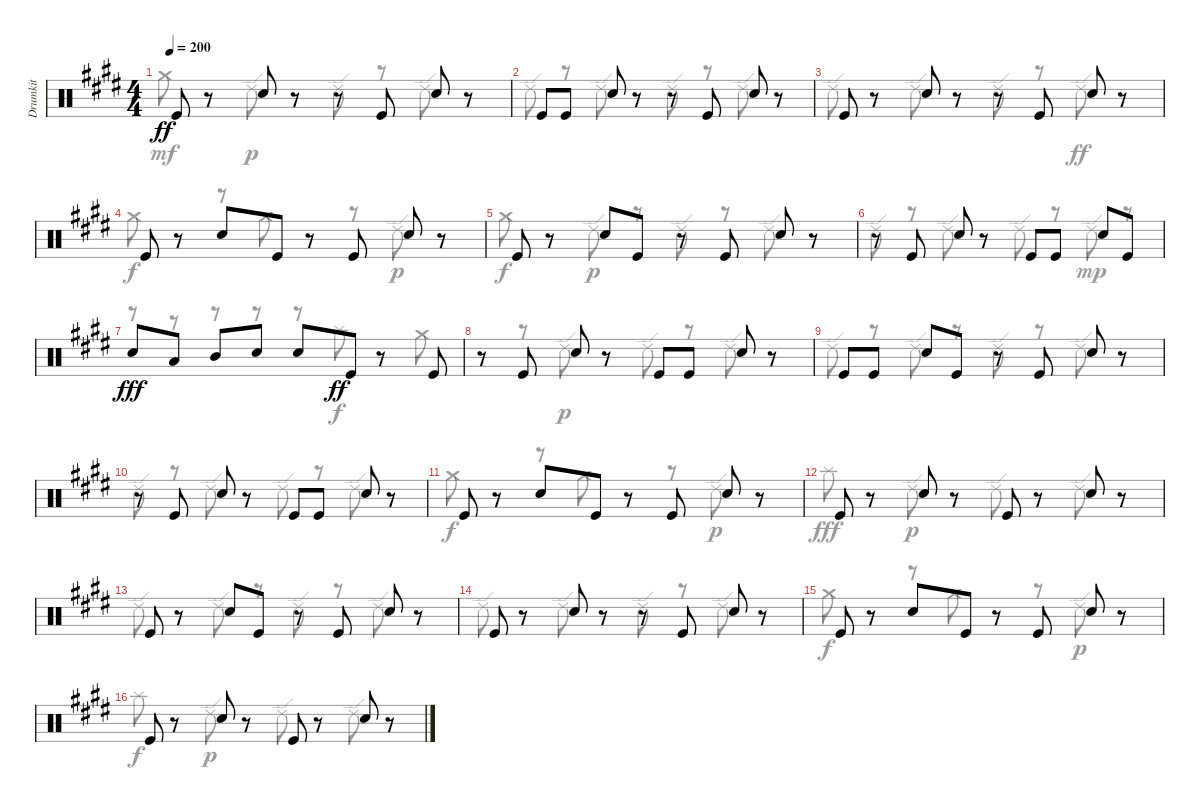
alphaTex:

\track ("Drumkit" "Drumkit") {instrument percussion}
\staff {score}
\articulation defaults
\voice
\ts (4 4)
\tempo 200
\clef neutral
\ks c#minor "Kick (hit)".8{dy ff}
r.8 "Snare (hit) 2".8 r.8 r.8 "Kick (hit)".8 "Snare (hit) 2".8 r.8 |
"Kick (hit)".8 "Kick (hit)".8 "Snare (hit) 2".8 r.8 r.8 "Kick (hit)".8 "Snare (hit) 2".8 r.8 |
"Kick (hit)".8 r.8 "Snare (hit) 2".8 r.8 r.8 "Kick (hit)".8 "Snare (hit) 2".8 r.8 |
"Kick (hit)".8 r.8 "Snare (hit) 2".8 "Kick (hit)".8 r.8 "Kick (hit)".8 "Snare (hit) 2".8 r.8 |
"Kick (hit)".8 r.8 "Snare (hit) 2".8 "Kick (hit)".8 r.8 "Kick (hit)".8 "Snare (hit) 2".8 r.8 |
r.8 "Kick (hit)".8 "Snare (hit) 2".8 r.8 "Kick (hit)".8 "Kick (hit)".8 "Snare (hit) 2".8 "Kick (hit)".8 |
"Snare (hit) 2".8{dy fff} "Low Tom (hit)".8 "Mid Tom (hit)".8 "Snare (hit) 2".8 "Snare (hit) 2".8 "Kick (hit)".8{dy ff} r.8 "Kick (hit)".8 |
r.8 "Kick (hit)".8 "Snare (hit) 2".8 r.8 "Kick (hit)".8 "Kick (hit)".8 "Snare (hit) 2".8 r.8 |
"Kick (hit)".8 "Kick (hit)".8 "Snare (hit) 2".8 "Kick (hit)".8 r.8 "Kick (hit)".8 "Snare (hit) 2".8 r.8 |
r.8 "Kick (hit)".8 "Snare (hit) 2".8 r.8 "Kick (hit)".8 "Kick (hit)".8 "Snare (hit) 2".8 r.8 |
"Kick (hit)".8 r.8 "Snare (hit) 2".8 "Kick (hit)".8 r.8 "Kick (hit)".8 "Snare (hit) 2".8 r.8 |
"Kick (hit)".8 r.8 "Snare (hit) 2".8 r.8 "Kick (hit)".8 r.8 "Snare (hit) 2".8 r.8 |
"Kick (hit)".8 r.8 "Snare (hit) 2".8 "Kick (hit)".8 r.8 "Kick (hit)".8 "Snare (hit) 2".8 r.8 |
"Kick (hit)".8 r.8 "Snare (hit) 2".8 r.8 r.8 "Kick (hit)".8 "Snare (hit) 2".8 r.8 |
"Kick (hit)".8 r.8 "Snare (hit) 2".8 "Kick (hit)".8 r.8 "Kick (hit)".8 "Snare (hit) 2".8 r.8 |
"Kick (hit)".8 r.8 "Snare (hit) 2".8 r.8 "Kick (hit)".8 r.8 "Snare (hit) 2".8 r.8
\voice
\clef neutral
\ottava regular
\simile none
\ks c#minor "Crash medium (hit)".8{dy mf}
r.8 "Ride (edge) 2".8{dy p} r.8 "Ride (edge) 2".8 r.8 "Ride (edge) 2".8 r.8 |
"Ride (edge) 2".8 r.8 "Ride (edge) 2".8 r.8 "Ride (edge) 2".8 r.8 "Ride (edge) 2".8 r.8 |
"Ride (edge) 2".8 r.8 "Ride (edge) 2".8 r.8 "Ride (edge) 2".8 r.8 "Ride (edge) 2".8{dy ff} r.8 |
"Crash medium (hit)".8{dy f} r.8 r.8 "Crash medium (hit)".8 r.8 r.8 "Ride (edge) 2".8{dy p} r.8 |
"Crash medium (hit)".8{dy f} r.8 "Ride (edge) 2".8{dy p} r.8 "Ride (edge) 2".8 r.8 "Ride (edge) 2".8 r.8 |
"Ride (edge) 2".8 r.8 "Ride (edge) 2".8 r.8 "Ride (edge) 2".8 r.8 "Ride (edge) 2".8{dy mp} r.8 |
r.8 r.8 r.8 r.8 r.8 "Splash (hit)".8{dy f} r.8 "Crash medium (hit)".8 |
r.8 r.8 "Ride (edge) 2".8{dy p} r.8 "Ride (edge) 2".8 r.8 "Ride (edge) 2".8 r.8 |
"Ride (edge) 2".8 r.8 "Ride (edge) 2".8 r.8 "Ride (edge) 2".8 r.8 "Ride (edge) 2".8 r.8 |
"Ride (edge) 2".8 r.8 "Ride (edge) 2".8 r.8 "Ride (edge) 2".8 r.8 "Ride (edge) 2".8 r.8 |
"Crash medium (hit)".8{dy f} r.8 r.8 "Crash medium (hit)".8 r.8 r.8 "Ride (edge) 2".8{dy p} r.8 |
"Splash (hit)".8{dy fff} r.8 "Ride (edge) 2".8{dy p} r.8 "Ride (edge) 2".8 r.8 "Ride (edge) 2".8 r.8 |
"Ride (edge) 2".8 r.8 "Ride (edge) 2".8 r.8 "Ride (edge) 2".8 r.8 "Ride (edge) 2".8 r.8 |
"Ride (edge) 2".8 r.8 "Ride (edge) 2".8 r.8 "Ride (edge) 2".8 r.8 "Ride (edge) 2".8 r.8 |
"Crash medium (hit)".8{dy f} r.8 r.8 "Crash medium (hit)".8 r.8 r.8 "Ride (edge) 2".8{dy p} r.8 |
"Splash (hit)".8{dy f} r.8 "Ride (edge) 2".8{dy p} r.8 "Ride (edge) 2".8 r.8 "Ride (edge) 2".8 r.8
